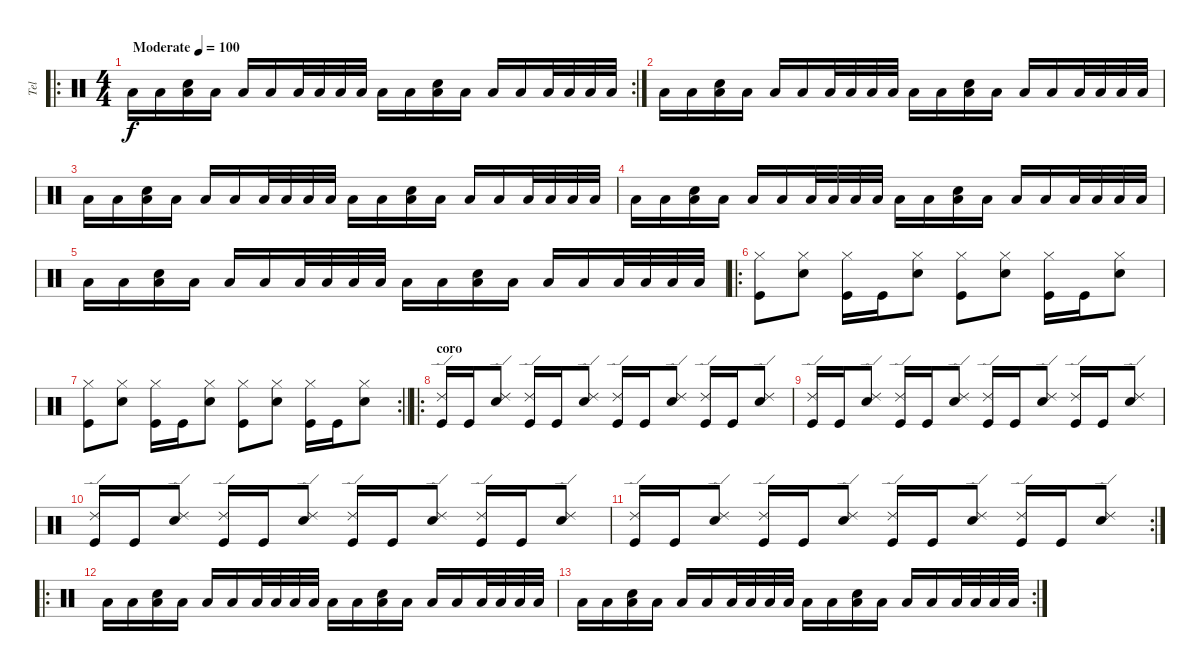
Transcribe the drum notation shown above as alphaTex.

\track ("Tel" "Tel") {instrument percussion}
\staff {score}
\articulation defaults
\ro
\rc 2
\ts (4 4)
\tempo (100 "Moderate")
\clef neutral
\ks c "Low Tom (hit)".16{dy f} "Low Tom (hit)".16
("Electric Snare (hit)" "Low Tom (hit)").16 "Low Tom (hit)".16 "Low Tom (hit)".16 "Low Tom (hit)".16 "Low Tom (hit)".32 "Low Tom (hit)".32 "Low Tom (hit)".32 "Low Tom (hit)".32 "Low Tom (hit)".16 "Low Tom (hit)".16 ("Electric Snare (hit)" "Low Tom (hit)").16 "Low Tom (hit)".16 "Low Tom (hit)".16 "Low Tom (hit)".16 "Low Tom (hit)".32 "Low Tom (hit)".32 "Low Tom (hit)".32 "Low Tom (hit)".32 |
"Low Tom (hit)".16 "Low Tom (hit)".16 ("Electric Snare (hit)" "Low Tom (hit)").16 "Low Tom (hit)".16 "Low Tom (hit)".16 "Low Tom (hit)".16 "Low Tom (hit)".32 "Low Tom (hit)".32 "Low Tom (hit)".32 "Low Tom (hit)".32 "Low Tom (hit)".16 "Low Tom (hit)".16 ("Electric Snare (hit)" "Low Tom (hit)").16 "Low Tom (hit)".16 "Low Tom (hit)".16 "Low Tom (hit)".16 "Low Tom (hit)".32 "Low Tom (hit)".32 "Low Tom (hit)".32 "Low Tom (hit)".32 |
"Low Tom (hit)".16 "Low Tom (hit)".16 ("Electric Snare (hit)" "Low Tom (hit)").16 "Low Tom (hit)".16 "Low Tom (hit)".16 "Low Tom (hit)".16 "Low Tom (hit)".32 "Low Tom (hit)".32 "Low Tom (hit)".32 "Low Tom (hit)".32 "Low Tom (hit)".16 "Low Tom (hit)".16 ("Electric Snare (hit)" "Low Tom (hit)").16 "Low Tom (hit)".16 "Low Tom (hit)".16 "Low Tom (hit)".16 "Low Tom (hit)".32 "Low Tom (hit)".32 "Low Tom (hit)".32 "Low Tom (hit)".32 |
"Low Tom (hit)".16 "Low Tom (hit)".16 ("Electric Snare (hit)" "Low Tom (hit)").16 "Low Tom (hit)".16 "Low Tom (hit)".16 "Low Tom (hit)".16 "Low Tom (hit)".32 "Low Tom (hit)".32 "Low Tom (hit)".32 "Low Tom (hit)".32 "Low Tom (hit)".16 "Low Tom (hit)".16 ("Electric Snare (hit)" "Low Tom (hit)").16 "Low Tom (hit)".16 "Low Tom (hit)".16 "Low Tom (hit)".16 "Low Tom (hit)".32 "Low Tom (hit)".32 "Low Tom (hit)".32 "Low Tom (hit)".32 |
"Low Tom (hit)".16 "Low Tom (hit)".16 ("Electric Snare (hit)" "Low Tom (hit)").16 "Low Tom (hit)".16 "Low Tom (hit)".16 "Low Tom (hit)".16 "Low Tom (hit)".32 "Low Tom (hit)".32 "Low Tom (hit)".32 "Low Tom (hit)".32 "Low Tom (hit)".16 "Low Tom (hit)".16 ("Electric Snare (hit)" "Low Tom (hit)").16 "Low Tom (hit)".16 "Low Tom (hit)".16 "Low Tom (hit)".16 "Low Tom (hit)".32 "Low Tom (hit)".32 "Low Tom (hit)".32 "Low Tom (hit)".32 |
\ro
("Hi-Hat (closed)" "Kick (hit)").8 ("Hi-Hat (closed)" "Electric Snare (hit)").8 ("Hi-Hat (closed)" "Kick (hit)").16 "Kick (hit)".16 ("Hi-Hat (closed)" "Electric Snare (hit)").8 ("Hi-Hat (closed)" "Kick (hit)").8 ("Hi-Hat (closed)" "Electric Snare (hit)").8 ("Hi-Hat (closed)" "Kick (hit)").16 "Kick (hit)".16 ("Hi-Hat (closed)" "Electric Snare (hit)").8 |
\rc 2
\barLineRight lightlight
("Hi-Hat (closed)" "Kick (hit)").8 ("Hi-Hat (closed)" "Electric Snare (hit)").8 ("Hi-Hat (closed)" "Kick (hit)").16 "Kick (hit)".16 ("Hi-Hat (closed)" "Electric Snare (hit)").8 ("Hi-Hat (closed)" "Kick (hit)").8 ("Hi-Hat (closed)" "Electric Snare (hit)").8 ("Hi-Hat (closed)" "Kick (hit)").16 "Kick (hit)".16 ("Hi-Hat (closed)" "Electric Snare (hit)").8 |
\ro
\section ("" "coro")
("Ride (edge) 2" "Kick (hit)").16 "Kick (hit)".16 ("Ride (edge) 2" "Electric Snare (hit)").8 ("Ride (edge) 2" "Kick (hit)").16 "Kick (hit)".16 ("Ride (edge) 2" "Electric Snare (hit)").8 ("Ride (edge) 2" "Kick (hit)").16 "Kick (hit)".16 ("Ride (edge) 2" "Electric Snare (hit)").8 ("Ride (edge) 2" "Kick (hit)").16 "Kick (hit)".16 ("Ride (edge) 2" "Electric Snare (hit)").8 |
("Ride (edge) 2" "Kick (hit)").16 "Kick (hit)".16 ("Ride (edge) 2" "Electric Snare (hit)").8 ("Ride (edge) 2" "Kick (hit)").16 "Kick (hit)".16 ("Ride (edge) 2" "Electric Snare (hit)").8 ("Ride (edge) 2" "Kick (hit)").16 "Kick (hit)".16 ("Ride (edge) 2" "Electric Snare (hit)").8 ("Ride (edge) 2" "Kick (hit)").16 "Kick (hit)".16 ("Ride (edge) 2" "Electric Snare (hit)").8 |
("Ride (edge) 2" "Kick (hit)").16 "Kick (hit)".16 ("Ride (edge) 2" "Electric Snare (hit)").8 ("Ride (edge) 2" "Kick (hit)").16 "Kick (hit)".16 ("Ride (edge) 2" "Electric Snare (hit)").8 ("Ride (edge) 2" "Kick (hit)").16 "Kick (hit)".16 ("Ride (edge) 2" "Electric Snare (hit)").8 ("Ride (edge) 2" "Kick (hit)").16 "Kick (hit)".16 ("Ride (edge) 2" "Electric Snare (hit)").8 |
\rc 2
("Ride (edge) 2" "Kick (hit)").16 "Kick (hit)".16 ("Ride (edge) 2" "Electric Snare (hit)").8 ("Ride (edge) 2" "Kick (hit)").16 "Kick (hit)".16 ("Ride (edge) 2" "Electric Snare (hit)").8 ("Ride (edge) 2" "Kick (hit)").16 "Kick (hit)".16 ("Ride (edge) 2" "Electric Snare (hit)").8 ("Ride (edge) 2" "Kick (hit)").16 "Kick (hit)".16 ("Ride (edge) 2" "Electric Snare (hit)").8 |
\ro "Low Tom (hit)".16 "Low Tom (hit)".16
("Electric Snare (hit)" "Low Tom (hit)").16 "Low Tom (hit)".16 "Low Tom (hit)".16 "Low Tom (hit)".16 "Low Tom (hit)".32 "Low Tom (hit)".32 "Low Tom (hit)".32 "Low Tom (hit)".32 "Low Tom (hit)".16 "Low Tom (hit)".16 ("Electric Snare (hit)" "Low Tom (hit)").16 "Low Tom (hit)".16 "Low Tom (hit)".16 "Low Tom (hit)".16 "Low Tom (hit)".32 "Low Tom (hit)".32 "Low Tom (hit)".32 "Low Tom (hit)".32 |
\rc 2 "Low Tom (hit)".16 "Low Tom (hit)".16
("Electric Snare (hit)" "Low Tom (hit)").16 "Low Tom (hit)".16 "Low Tom (hit)".16 "Low Tom (hit)".16 "Low Tom (hit)".32 "Low Tom (hit)".32 "Low Tom (hit)".32 "Low Tom (hit)".32 "Low Tom (hit)".16 "Low Tom (hit)".16 ("Electric Snare (hit)" "Low Tom (hit)").16 "Low Tom (hit)".16 "Low Tom (hit)".16 "Low Tom (hit)".16 "Low Tom (hit)".32 "Low Tom (hit)".32 "Low Tom (hit)".32 "Low Tom (hit)".32
